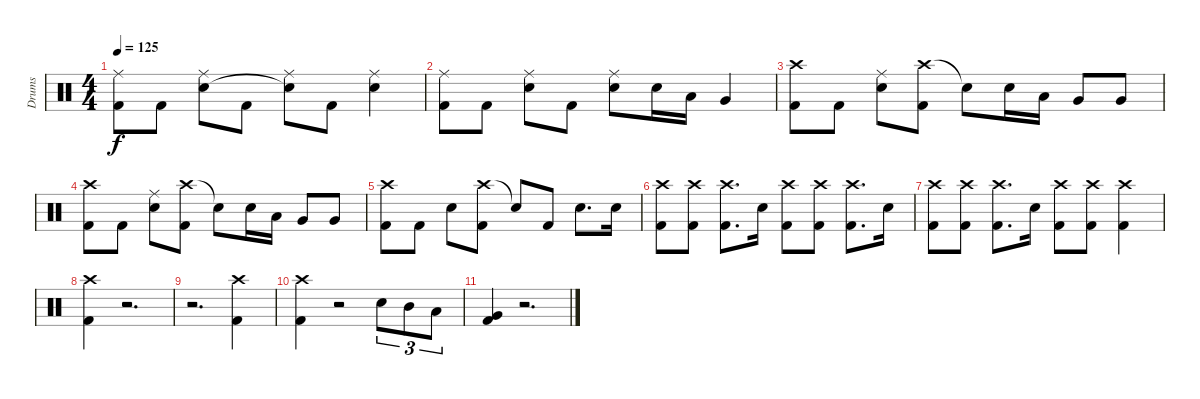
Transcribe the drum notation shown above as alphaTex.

\track ("Drums" "Drums") {instrument percussion}
\staff {score}
\articulation defaults
\ts (4 4)
\tempo 125
\clef neutral
\ks c
("Ride (middle)" "Kick (hit) 2").8{dy f} "Kick (hit) 2".8 ("Ride (middle)" "Snare (hit) 2").8 "Kick (hit) 2".8 ("Ride (middle)" "Snare (hit)"{t}).8 "Kick (hit) 2".8 ("Ride (middle)" "Snare (hit) 2").4 |
("Ride (middle)" "Kick (hit) 2").8 "Kick (hit) 2".8 ("Ride (middle)" "Snare (hit) 2").8 "Kick (hit) 2".8 ("Ride (middle)" "Snare (hit) 2").8 "Snare (hit) 2".16 "Low Tom (hit)".16 "Very Low Tom (hit)".4 |
("Crash high (hit)" "Kick (hit) 2").8 "Kick (hit) 2".8 ("Ride (middle)" "Snare (hit) 2").8 ("Crash high (hit)" "Kick (hit) 2").8 "Snare (hit)"{t}.8 "Snare (hit) 2".16 "Low Tom (hit)".16 "Very Low Tom (hit)".8 "Very Low Tom (hit)".8 |
("Crash high (hit)" "Kick (hit) 2").8 "Kick (hit) 2".8 ("Ride (middle)" "Snare (hit) 2").8 ("Crash high (hit)" "Kick (hit) 2").8 "Snare (hit)"{t}.8 "Snare (hit) 2".16 "Low Tom (hit)".16 "Very Low Tom (hit)".8 "Very Low Tom (hit)".8 |
("Crash high (hit)" "Kick (hit) 2").8 "Kick (hit) 2".8 "Snare (hit) 2".8 ("Crash high (hit)" "Kick (hit) 2").8 "Snare (hit)"{t}.8 "Kick (hit) 2".8 "Snare (hit) 2".8{d} "Snare (hit) 2".16 |
("Crash high (hit)" "Kick (hit) 2").8 ("Crash high (hit)" "Kick (hit) 2").8 ("Crash high (hit)" "Kick (hit) 2").8{d} "Snare (hit) 2".16 ("Crash high (hit)" "Kick (hit) 2").8 ("Crash high (hit)" "Kick (hit) 2").8 ("Crash high (hit)" "Kick (hit) 2").8{d} "Snare (hit) 2".16 |
("Crash high (hit)" "Kick (hit) 2").8 ("Crash high (hit)" "Kick (hit) 2").8 ("Crash high (hit)" "Kick (hit) 2").8{d} "Snare (hit) 2".16 ("Crash high (hit)" "Kick (hit) 2").8 ("Crash high (hit)" "Kick (hit) 2").8 ("Crash high (hit)" "Kick (hit) 2").4 |
("Crash high (hit)" "Kick (hit) 2").4 r.2{d} |
r.2{d} ("Crash high (hit)" "Kick (hit) 2").4 |
("Crash high (hit)" "Kick (hit) 2").4 r.2 "Snare (hit) 2".8{tu (3 2)} "Mid Tom (hit)".8{tu (3 2)} "Low Tom (hit)".8{tu (3 2)} |
("Very Low Tom (hit)" "Kick (hit) 2").4 r.2{d}
